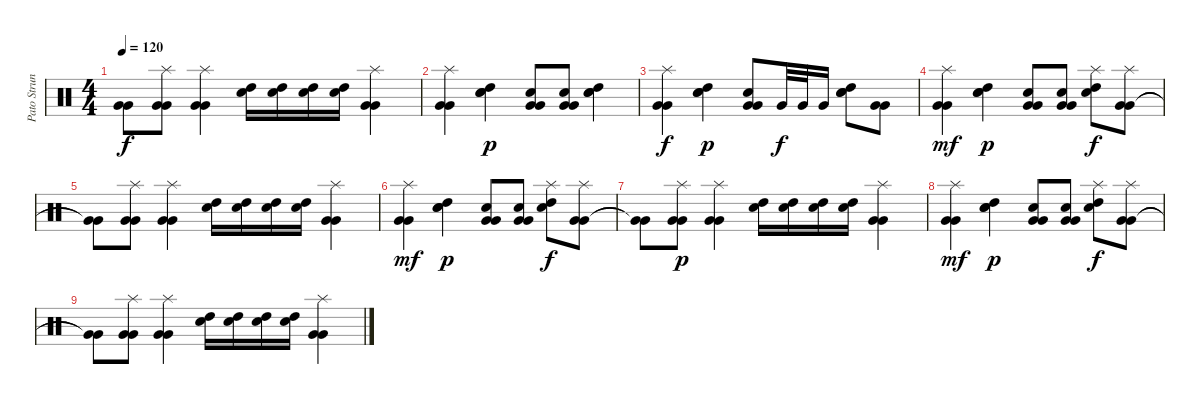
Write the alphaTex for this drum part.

\track ("Pato Strunz" "Pato Strun") {instrument percussion}
\staff {score}
\articulation defaults
\ts (4 4)
\tempo 120
\clef neutral
\ks c
("Very Low Tom (hit)"{t} "Very Low Tom (hit)"{t}).8{dy f} ("Very Low Tom (hit)" "Very Low Tom (hit)" "Splash (hit)").8 ("Very Low Tom (hit)" "Very Low Tom (hit)" "Splash (hit)").4 ("High Tom (hit)" "Snare (hit) 2").16 ("High Tom (hit)" "Snare (hit) 2").16 ("High Tom (hit)" "Snare (hit) 2").16 ("High Tom (hit)" "Snare (hit) 2").16 ("Very Low Tom (hit)" "Very Low Tom (hit)" "Splash (hit)").4 |
("Very Low Tom (hit)" "Very Low Tom (hit)" "Splash (hit)").4{volume 4} ("High Tom (hit)" "Snare (hit) 2" "Snare (hit) 2").4{dy p} ("Very Low Tom (hit)" "Very Low Tom (hit)" "Snare (hit) 2").8 ("Very Low Tom (hit)" "Very Low Tom (hit)" "Snare (hit) 2").8 ("High Tom (hit)" "Snare (hit) 2" "Snare (hit) 2").4 |
("Very Low Tom (hit)" "Very Low Tom (hit)" "Splash (hit)").4{dy f volume 3} ("High Tom (hit)" "Snare (hit) 2" "Snare (hit) 2").4{dy p} ("Very Low Tom (hit)" "Very Low Tom (hit)" "Snare (hit) 2").8 "Very Low Tom (hit)".32{dy f} "Very Low Tom (hit)".32 "Very Low Tom (hit)".16 ("High Tom (hit)" "Snare (hit) 2" "Snare (hit) 2").8 ("Very Low Tom (hit)" "Very Low Tom (hit)").8 |
("Very Low Tom (hit)" "Very Low Tom (hit)" "Splash (hit)").4{dy mf volume 2} ("High Tom (hit)" "Snare (hit) 2" "Snare (hit) 2").4{dy p} ("Very Low Tom (hit)" "Very Low Tom (hit)" "Snare (hit) 2").8 ("Very Low Tom (hit)" "Very Low Tom (hit)" "Snare (hit) 2").8 ("High Tom (hit)" "Snare (hit) 2" "Splash (hit)").8{dy f} ("Very Low Tom (hit)" "Very Low Tom (hit)" "Splash (hit)").8 |
("Very Low Tom (hit)"{t} "Very Low Tom (hit)"{t}).8 ("Very Low Tom (hit)" "Very Low Tom (hit)" "Splash (hit)").8 ("Very Low Tom (hit)" "Very Low Tom (hit)" "Splash (hit)").4 ("High Tom (hit)" "Snare (hit) 2").16 ("High Tom (hit)" "Snare (hit) 2").16 ("High Tom (hit)" "Snare (hit) 2").16 ("High Tom (hit)" "Snare (hit) 2").16 ("Very Low Tom (hit)" "Very Low Tom (hit)" "Splash (hit)").4 |
("Very Low Tom (hit)" "Very Low Tom (hit)" "Splash (hit)").4{dy mf volume 1} ("High Tom (hit)" "Snare (hit) 2" "Snare (hit) 2").4{dy p} ("Very Low Tom (hit)" "Very Low Tom (hit)" "Snare (hit) 2").8 ("Very Low Tom (hit)" "Very Low Tom (hit)" "Snare (hit) 2").8 ("High Tom (hit)" "Snare (hit) 2" "Splash (hit)").8{dy f} ("Very Low Tom (hit)" "Very Low Tom (hit)" "Splash (hit)").8 |
("Very Low Tom (hit)"{t} "Very Low Tom (hit)"{t}).8{volume 1} ("Very Low Tom (hit)" "Very Low Tom (hit)" "Splash (hit)").8{dy p} ("Very Low Tom (hit)" "Very Low Tom (hit)" "Splash (hit)").4 ("High Tom (hit)" "Snare (hit) 2").16 ("High Tom (hit)" "Snare (hit) 2").16 ("High Tom (hit)" "Snare (hit) 2").16 ("High Tom (hit)" "Snare (hit) 2").16 ("Very Low Tom (hit)" "Very Low Tom (hit)" "Splash (hit)").4 |
("Very Low Tom (hit)" "Very Low Tom (hit)" "Splash (hit)").4{dy mf volume 0} ("High Tom (hit)" "Snare (hit) 2" "Snare (hit) 2").4{dy p} ("Very Low Tom (hit)" "Very Low Tom (hit)" "Snare (hit) 2").8 ("Very Low Tom (hit)" "Very Low Tom (hit)" "Snare (hit) 2").8 ("High Tom (hit)" "Snare (hit) 2" "Splash (hit)").8{dy f} ("Very Low Tom (hit)" "Very Low Tom (hit)" "Splash (hit)").8 |
("Very Low Tom (hit)"{t} "Very Low Tom (hit)"{t}).8 ("Very Low Tom (hit)" "Very Low Tom (hit)" "Splash (hit)").8 ("Very Low Tom (hit)" "Very Low Tom (hit)" "Splash (hit)").4 ("High Tom (hit)" "Snare (hit) 2").16 ("High Tom (hit)" "Snare (hit) 2").16 ("High Tom (hit)" "Snare (hit) 2").16 ("High Tom (hit)" "Snare (hit) 2").16 ("Very Low Tom (hit)" "Very Low Tom (hit)" "Splash (hit)").4
